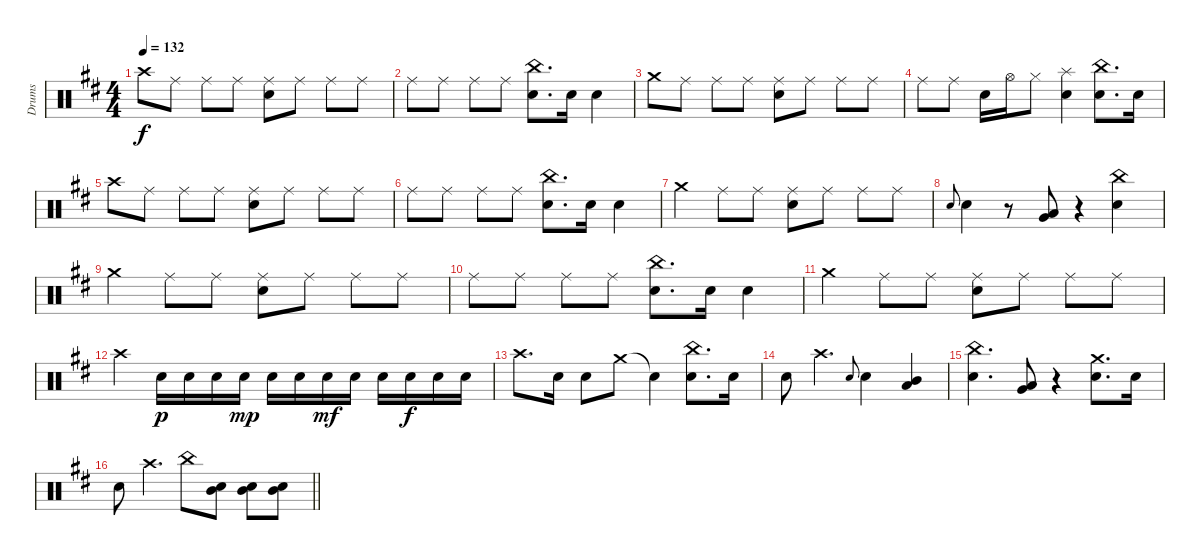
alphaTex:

\track ("Drums" "Drums") {instrument percussion}
\staff {score}
\articulation defaults
\ts (4 4)
\tempo 132
\clef neutral
\ks d "Crash high (hit)".8{dy f} "Ride (middle)".8 "Ride (middle)".8 "Ride (middle)".8
("Ride (middle)" "Snare (hit) 2").8 "Ride (middle)".8 "Ride (middle)".8 "Ride (middle)".8 |
"Ride (middle)".8 "Ride (middle)".8 "Ride (middle)".8 "Ride (middle)".8 ("China (hit)" "Snare (hit) 2").8{d} "Snare (hit) 2".16 "Snare (hit) 2".4 |
"Crash medium (hit)".8 "Ride (middle)".8 "Ride (middle)".8 "Ride (middle)".8 ("Ride (middle)" "Snare (hit) 2").8 "Ride (middle)".8 "Ride (middle)".8 "Ride (middle)".8 |
"Ride (middle)".8 "Ride (middle)".8 "Snare (hit) 2".16 "Hi-Hat (open)".16 "Hi-Hat (closed)".8 ("Splash (hit)" "Snare (hit) 2").4 ("China (hit)" "Snare (hit) 2").8{d} "Snare (hit) 2".16 |
"Crash high (hit)".8 "Ride (middle)".8 "Ride (middle)".8 "Ride (middle)".8 ("Ride (middle)" "Snare (hit) 2").8 "Ride (middle)".8 "Ride (middle)".8 "Ride (middle)".8 |
"Ride (middle)".8 "Ride (middle)".8 "Ride (middle)".8 "Ride (middle)".8 ("China (hit)" "Snare (hit) 2").8{d} "Snare (hit) 2".16 "Snare (hit) 2".4 |
"Crash medium (hit)".4 "Ride (middle)".8 "Ride (middle)".8 ("Ride (middle)" "Snare (hit) 2").8 "Ride (middle)".8 "Ride (middle)".8 "Ride (middle)".8 |
"Snare (hit) 2".8{gr onbeat} "Snare (hit) 2".4 r.8 ("Low Tom (hit)" "Very Low Tom (hit)").8 r.4 ("China (hit)" "Snare (hit) 2").4 |
"Crash medium (hit)".4 "Ride (middle)".8 "Ride (middle)".8 ("Ride (middle)" "Snare (hit) 2").8 "Ride (middle)".8 "Ride (middle)".8 "Ride (middle)".8 |
"Ride (middle)".8 "Ride (middle)".8 "Ride (middle)".8 "Ride (middle)".8 ("China (hit)" "Snare (hit) 2").8{d} "Snare (hit) 2".16 "Snare (hit) 2".4 |
"Crash medium (hit)".4 "Ride (middle)".8 "Ride (middle)".8 ("Ride (middle)" "Snare (hit) 2").8 "Ride (middle)".8 "Ride (middle)".8 "Ride (middle)".8 |
"Crash high (hit)".4 "Snare (hit) 2".16{dy p} "Snare (hit) 2".16 "Snare (hit) 2".16 "Snare (hit) 2".16{dy mp} "Snare (hit) 2".16 "Snare (hit) 2".16 "Snare (hit) 2".16{dy mf} "Snare (hit) 2".16 "Snare (hit) 2".16 "Snare (hit) 2".16{dy f} "Snare (hit) 2".16 "Snare (hit) 2".16 |
"Crash high (hit)".8{d} "Snare (hit) 2".16 "Snare (hit) 2".8 "Crash medium (hit)".8 "Snare (hit)"{t}.4 ("China (hit)" "Snare (hit) 2").8{d} "Snare (hit) 2".16 |
"Snare (hit) 2".8 "Crash high (hit)".4{d} "Snare (hit) 2".8{gr onbeat} "Snare (hit) 2".4 ("Low Tom (hit)" "Mid Tom (hit)").4 |
("China (hit)" "Snare (hit) 2").4{d} ("Low Tom (hit)" "Very Low Tom (hit)").8 r.4 ("Crash medium (hit)" "Snare (hit) 2").8{d} "Snare (hit) 2".16 |
\barLineRight lightlight "Snare (hit) 2".8 "Crash high (hit)".4{d} "China (hit)".8
("Mid Tom (hit)" "Snare (hit) 2").8 ("Mid Tom (hit)" "Snare (hit) 2").8 ("Mid Tom (hit)" "Snare (hit) 2").8
